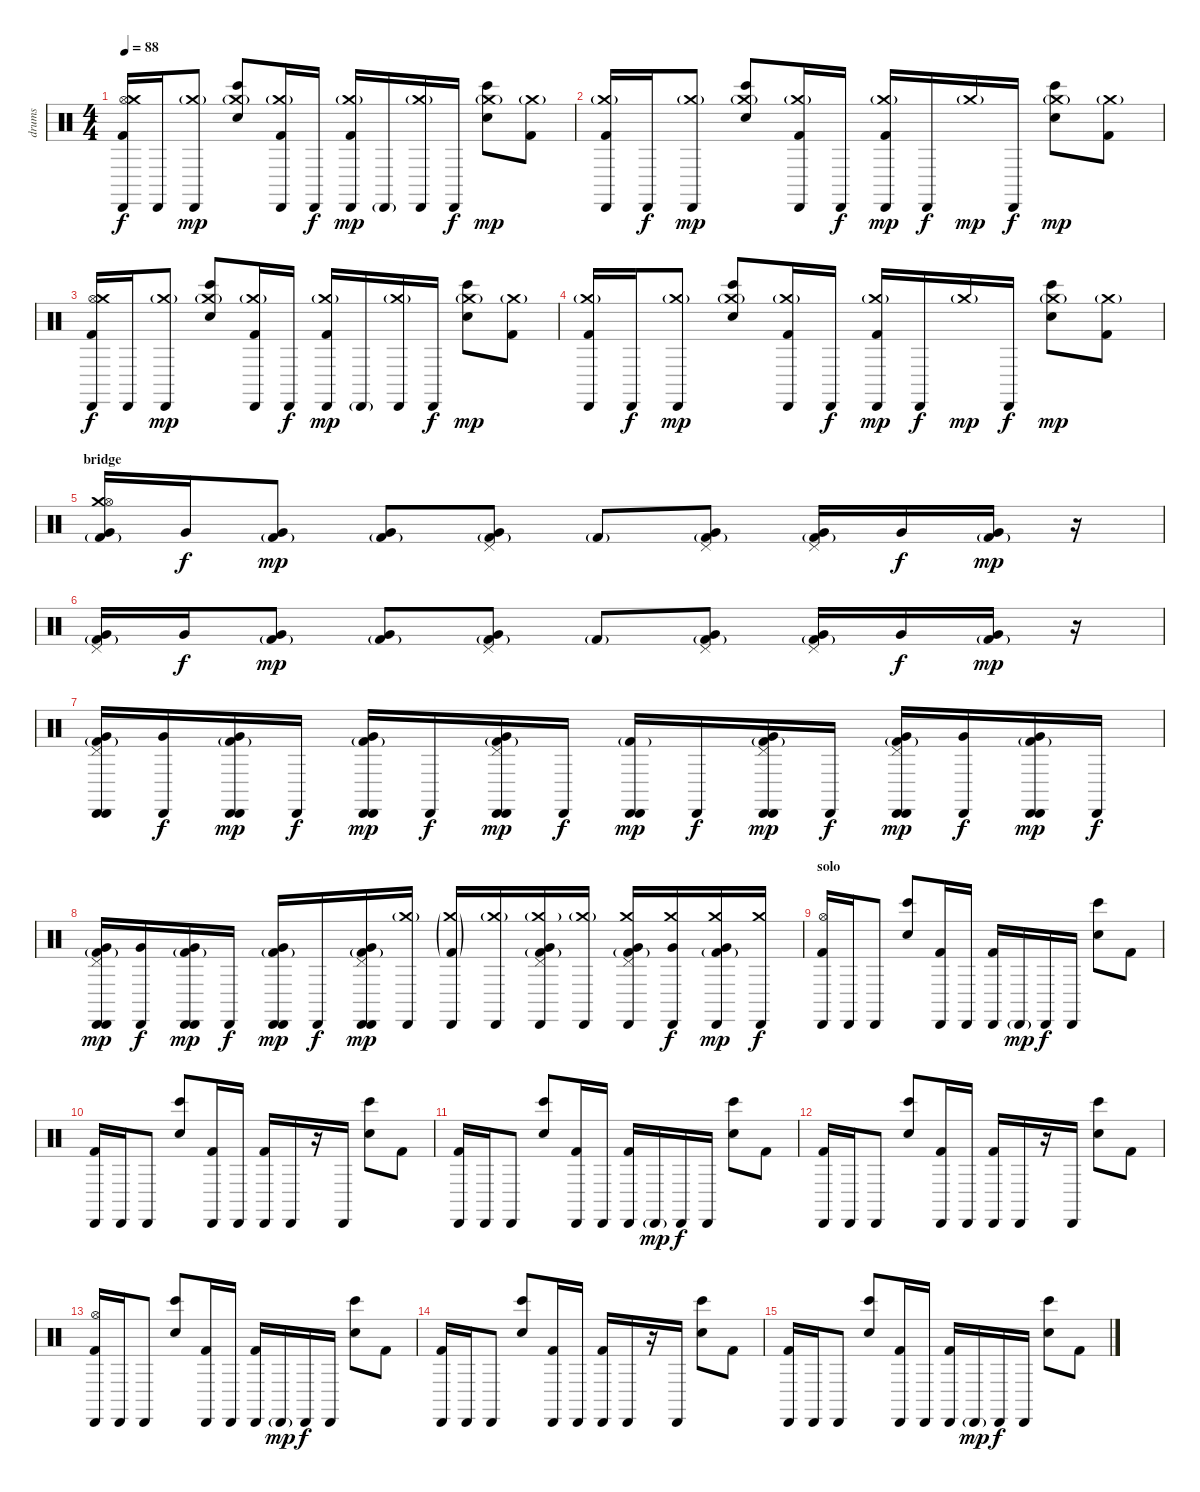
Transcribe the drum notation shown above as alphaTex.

\track ("drums" "drums") {instrument percussion}
\staff {score}
\articulation defaults
\ts (4 4)
\tempo 88
\clef neutral
\ks c
("Cabasa (hit)" "Kick (hit) 2" "Hi-Hat (open)" "Crash medium (hit)").16{dy f} "Cabasa (hit)".16 ("Cabasa (hit)" "Crash medium (hit)"{g}).8{dy mp} ("Hand Clap (hit)" "Bongo High (hit)" "Crash medium (hit)"{g}).8 ("Cabasa (hit)" "Kick (hit) 2" "Crash medium (hit)"{g}).16 "Cabasa (hit)".16{dy f} ("Cabasa (hit)" "Kick (hit) 2" "Crash medium (hit)"{g}).16{dy mp} "Cabasa (hit)"{g}.16 ("Cabasa (hit)" "Crash medium (hit)"{g}).16 "Cabasa (hit)".16{dy f} ("Hand Clap (hit)" "Bongo High (hit)" "Crash medium (hit)"{g}).8{dy mp} ("Kick (hit) 2" "Crash medium (hit)"{g}).8 |
("Cabasa (hit)" "Kick (hit) 2" "Crash medium (hit)"{g}).16 "Cabasa (hit)".16{dy f} ("Cabasa (hit)" "Crash medium (hit)"{g}).8{dy mp} ("Bongo High (hit)" "Hand Clap (hit)" "Crash medium (hit)"{g}).8 ("Cabasa (hit)" "Kick (hit) 2" "Crash medium (hit)"{g}).16 "Cabasa (hit)".16{dy f} ("Cabasa (hit)" "Kick (hit) 2" "Crash medium (hit)"{g}).16{dy mp} "Cabasa (hit)".16{dy f} "Crash medium (hit)"{g}.16{dy mp} "Cabasa (hit)".16{dy f} ("Bongo High (hit)" "Hand Clap (hit)" "Crash medium (hit)"{g}).8{dy mp} ("Kick (hit) 2" "Crash medium (hit)"{g}).8 |
("Cabasa (hit)" "Kick (hit) 2" "Hi-Hat (open)" "Crash medium (hit)").16{dy f} "Cabasa (hit)".16 ("Cabasa (hit)" "Crash medium (hit)"{g}).8{dy mp} ("Hand Clap (hit)" "Bongo High (hit)" "Crash medium (hit)"{g}).8 ("Cabasa (hit)" "Kick (hit) 2" "Crash medium (hit)"{g}).16 "Cabasa (hit)".16{dy f} ("Cabasa (hit)" "Kick (hit) 2" "Crash medium (hit)"{g}).16{dy mp} "Cabasa (hit)"{g}.16 ("Cabasa (hit)" "Crash medium (hit)"{g}).16 "Cabasa (hit)".16{dy f} ("Hand Clap (hit)" "Bongo High (hit)" "Crash medium (hit)"{g}).8{dy mp} ("Kick (hit) 2" "Crash medium (hit)"{g}).8 |
("Cabasa (hit)" "Kick (hit) 2" "Crash medium (hit)"{g}).16 "Cabasa (hit)".16{dy f} ("Cabasa (hit)" "Crash medium (hit)"{g}).8{dy mp} ("Bongo High (hit)" "Hand Clap (hit)" "Crash medium (hit)"{g}).8 ("Cabasa (hit)" "Kick (hit) 2" "Crash medium (hit)"{g}).16 "Cabasa (hit)".16{dy f} ("Cabasa (hit)" "Kick (hit) 2" "Crash medium (hit)"{g}).16{dy mp} "Cabasa (hit)".16{dy f} "Crash medium (hit)"{g}.16{dy mp} "Cabasa (hit)".16{dy f} ("Bongo High (hit)" "Hand Clap (hit)" "Crash medium (hit)"{g}).8{dy mp} ("Kick (hit) 2" "Crash medium (hit)"{g}).8 |
\section ("" "bridge")
("Kick (hit) 2"{g} "Very Low Tom (hit)" "Crash medium (hit)" "Hi-Hat (open)").16 "Very Low Tom (hit)".16{dy f} ("Kick (hit) 2"{g} "Very Low Tom (hit)").8{dy mp} ("Kick (hit) 2"{g} "Very Low Tom (hit)").8 ("Kick (hit) 2"{g} "Very Low Tom (hit)" "Pedal Hi-Hat (hit)").8 "Kick (hit) 2"{g}.8 ("Kick (hit) 2"{g} "Very Low Tom (hit)" "Pedal Hi-Hat (hit)").8 ("Kick (hit) 2"{g} "Very Low Tom (hit)" "Pedal Hi-Hat (hit)").16 "Very Low Tom (hit)".16{dy f} ("Kick (hit) 2"{g} "Very Low Tom (hit)").16{dy mp} r.16 |
("Kick (hit) 2"{g} "Very Low Tom (hit)" "Pedal Hi-Hat (hit)").16 "Very Low Tom (hit)".16{dy f} ("Kick (hit) 2"{g} "Very Low Tom (hit)").8{dy mp} ("Kick (hit) 2"{g} "Very Low Tom (hit)").8 ("Kick (hit) 2"{g} "Very Low Tom (hit)" "Pedal Hi-Hat (hit)").8 "Kick (hit) 2"{g}.8 ("Kick (hit) 2"{g} "Very Low Tom (hit)" "Pedal Hi-Hat (hit)").8 ("Kick (hit) 2"{g} "Very Low Tom (hit)" "Pedal Hi-Hat (hit)").16 "Very Low Tom (hit)".16{dy f} ("Kick (hit) 2"{g} "Very Low Tom (hit)").16{dy mp} r.16 |
("Cabasa (hit)" "Kick (hit) 2"{g} "Very Low Tom (hit)" "Pedal Hi-Hat (hit)" "Cabasa (hit)").16 ("Cabasa (hit)" "Very Low Tom (hit)").16{dy f} ("Cabasa (hit)" "Kick (hit) 2"{g} "Very Low Tom (hit)" "Cabasa (hit)").16{dy mp} "Cabasa (hit)".16{dy f} ("Cabasa (hit)" "Kick (hit) 2"{g} "Very Low Tom (hit)" "Cabasa (hit)").16{dy mp} "Cabasa (hit)".16{dy f} ("Cabasa (hit)" "Kick (hit) 2"{g} "Very Low Tom (hit)" "Pedal Hi-Hat (hit)" "Cabasa (hit)").16{dy mp} "Cabasa (hit)".16{dy f} ("Cabasa (hit)" "Kick (hit) 2"{g} "Cabasa (hit)").16{dy mp} "Cabasa (hit)".16{dy f} ("Cabasa (hit)" "Kick (hit) 2"{g} "Very Low Tom (hit)" "Pedal Hi-Hat (hit)" "Cabasa (hit)").16{dy mp} "Cabasa (hit)".16{dy f} ("Cabasa (hit)" "Kick (hit) 2"{g} "Very Low Tom (hit)" "Pedal Hi-Hat (hit)" "Cabasa (hit)").16{dy mp} ("Cabasa (hit)" "Very Low Tom (hit)").16{dy f} ("Cabasa (hit)" "Kick (hit) 2"{g} "Very Low Tom (hit)" "Cabasa (hit)").16{dy mp} "Cabasa (hit)".16{dy f} |
("Cabasa (hit)" "Kick (hit) 2"{g} "Very Low Tom (hit)" "Pedal Hi-Hat (hit)" "Cabasa (hit)").16{dy mp} ("Cabasa (hit)" "Very Low Tom (hit)").16{dy f} ("Cabasa (hit)" "Kick (hit) 2"{g} "Very Low Tom (hit)" "Cabasa (hit)").16{dy mp} "Cabasa (hit)".16{dy f} ("Cabasa (hit)" "Kick (hit) 2"{g} "Very Low Tom (hit)" "Cabasa (hit)").16{dy mp} "Cabasa (hit)".16{dy f} ("Cabasa (hit)" "Kick (hit) 2"{g} "Very Low Tom (hit)" "Pedal Hi-Hat (hit)" "Cabasa (hit)").16{dy mp} ("Cabasa (hit)" "Crash medium (hit)"{g}).16 ("Cabasa (hit)" "Kick (hit) 2"{g} "Crash medium (hit)"{g}).16 ("Cabasa (hit)" "Crash medium (hit)"{g}).16 ("Cabasa (hit)" "Kick (hit) 2"{g} "Very Low Tom (hit)" "Pedal Hi-Hat (hit)" "Crash medium (hit)"{g}).16 ("Cabasa (hit)" "Crash medium (hit)"{g}).16 ("Cabasa (hit)" "Kick (hit) 2"{g} "Very Low Tom (hit)" "Pedal Hi-Hat (hit)" "Crash medium (hit)").16 ("Cabasa (hit)" "Very Low Tom (hit)" "Crash medium (hit)").16{dy f} ("Cabasa (hit)" "Kick (hit) 2"{g} "Very Low Tom (hit)" "Crash medium (hit)").16{dy mp} ("Cabasa (hit)" "Crash medium (hit)").16{dy f} |
\section ("" "solo")
("Cabasa (hit)" "Kick (hit) 2" "Hi-Hat (open)").16 "Cabasa (hit)".16 "Cabasa (hit)".8 ("Hand Clap (hit)" "Bongo High (hit)").8 ("Cabasa (hit)" "Kick (hit) 2").16 "Cabasa (hit)".16 ("Cabasa (hit)" "Kick (hit) 2").16 "Cabasa (hit)"{g}.16{dy mp} "Cabasa (hit)".16{dy f} "Cabasa (hit)".16 ("Hand Clap (hit)" "Bongo High (hit)").8 "Kick (hit) 2".8 |
("Cabasa (hit)" "Kick (hit) 2").16 "Cabasa (hit)".16 "Cabasa (hit)".8 ("Bongo High (hit)" "Hand Clap (hit)").8 ("Cabasa (hit)" "Kick (hit) 2").16 "Cabasa (hit)".16 ("Cabasa (hit)" "Kick (hit) 2").16 "Cabasa (hit)".16 r.16 "Cabasa (hit)".16 ("Bongo High (hit)" "Hand Clap (hit)").8 "Kick (hit) 2".8 |
("Cabasa (hit)" "Kick (hit) 2").16 "Cabasa (hit)".16 "Cabasa (hit)".8 ("Hand Clap (hit)" "Bongo High (hit)").8 ("Cabasa (hit)" "Kick (hit) 2").16 "Cabasa (hit)".16 ("Cabasa (hit)" "Kick (hit) 2").16 "Cabasa (hit)"{g}.16{dy mp} "Cabasa (hit)".16{dy f} "Cabasa (hit)".16 ("Hand Clap (hit)" "Bongo High (hit)").8 "Kick (hit) 2".8 |
("Cabasa (hit)" "Kick (hit) 2").16 "Cabasa (hit)".16 "Cabasa (hit)".8 ("Bongo High (hit)" "Hand Clap (hit)").8 ("Cabasa (hit)" "Kick (hit) 2").16 "Cabasa (hit)".16 ("Cabasa (hit)" "Kick (hit) 2").16 "Cabasa (hit)".16 r.16 "Cabasa (hit)".16 ("Bongo High (hit)" "Hand Clap (hit)").8 "Kick (hit) 2".8 |
("Cabasa (hit)" "Kick (hit) 2" "Hi-Hat (open)").16 "Cabasa (hit)".16 "Cabasa (hit)".8 ("Hand Clap (hit)" "Bongo High (hit)").8 ("Cabasa (hit)" "Kick (hit) 2").16 "Cabasa (hit)".16 ("Cabasa (hit)" "Kick (hit) 2").16 "Cabasa (hit)"{g}.16{dy mp} "Cabasa (hit)".16{dy f} "Cabasa (hit)".16 ("Hand Clap (hit)" "Bongo High (hit)").8 "Kick (hit) 2".8 |
("Cabasa (hit)" "Kick (hit) 2").16 "Cabasa (hit)".16 "Cabasa (hit)".8 ("Bongo High (hit)" "Hand Clap (hit)").8 ("Cabasa (hit)" "Kick (hit) 2").16 "Cabasa (hit)".16 ("Cabasa (hit)" "Kick (hit) 2").16 "Cabasa (hit)".16 r.16 "Cabasa (hit)".16 ("Bongo High (hit)" "Hand Clap (hit)").8 "Kick (hit) 2".8 |
("Cabasa (hit)" "Kick (hit) 2").16 "Cabasa (hit)".16 "Cabasa (hit)".8 ("Hand Clap (hit)" "Bongo High (hit)").8 ("Cabasa (hit)" "Kick (hit) 2").16 "Cabasa (hit)".16 ("Cabasa (hit)" "Kick (hit) 2").16 "Cabasa (hit)"{g}.16{dy mp} "Cabasa (hit)".16{dy f} "Cabasa (hit)".16 ("Hand Clap (hit)" "Bongo High (hit)").8 "Kick (hit) 2".8
